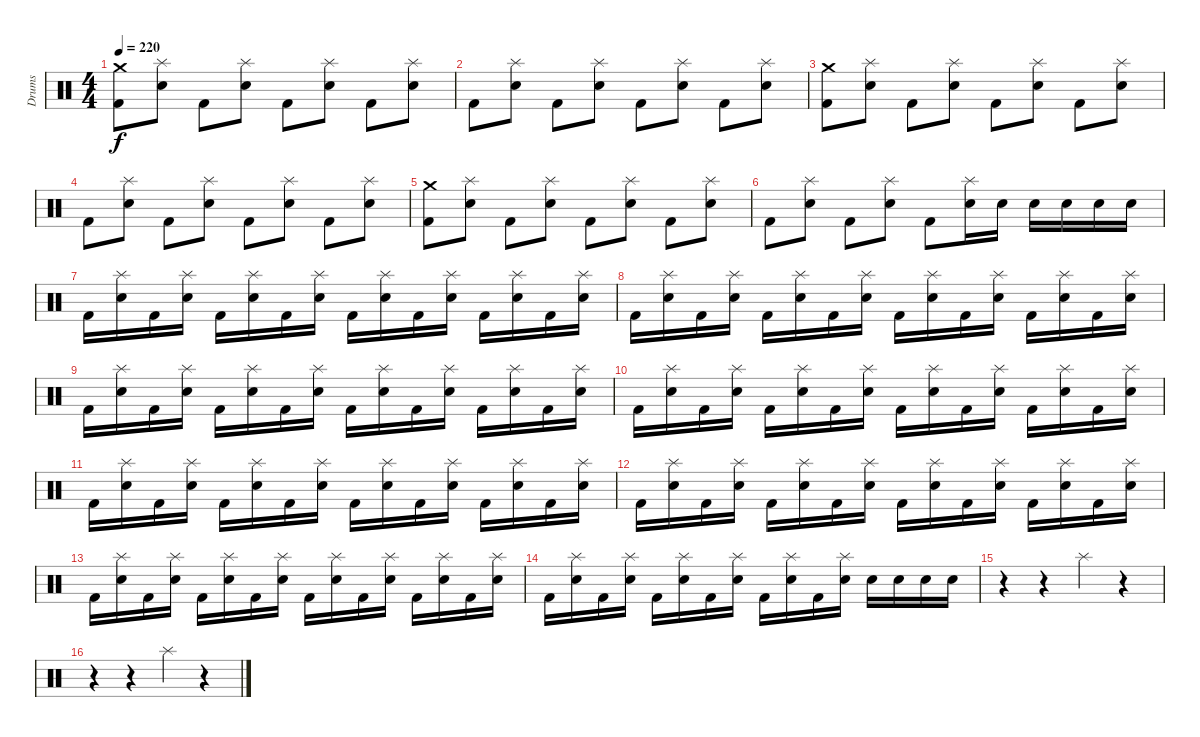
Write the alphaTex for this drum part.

\track ("Drums" "Drums") {instrument percussion}
\staff {score}
\articulation defaults
\ts (4 4)
\tempo 220
\clef neutral
\ks c
("Crash medium (hit)" "Kick (hit) 2").8{dy f} ("Splash (hit)" "Electric Snare (hit)").8 "Kick (hit) 2".8 ("Splash (hit)" "Electric Snare (hit)").8 "Kick (hit) 2".8 ("Splash (hit)" "Electric Snare (hit)").8 "Kick (hit) 2".8 ("Splash (hit)" "Electric Snare (hit)").8 |
"Kick (hit) 2".8 ("Splash (hit)" "Electric Snare (hit)").8 "Kick (hit) 2".8 ("Splash (hit)" "Electric Snare (hit)").8 "Kick (hit) 2".8 ("Splash (hit)" "Electric Snare (hit)").8 "Kick (hit) 2".8 ("Splash (hit)" "Electric Snare (hit)").8 |
("Crash medium (hit)" "Kick (hit) 2").8 ("Splash (hit)" "Electric Snare (hit)").8 "Kick (hit) 2".8 ("Splash (hit)" "Electric Snare (hit)").8 "Kick (hit) 2".8 ("Splash (hit)" "Electric Snare (hit)").8 "Kick (hit) 2".8 ("Splash (hit)" "Electric Snare (hit)").8 |
"Kick (hit) 2".8 ("Splash (hit)" "Electric Snare (hit)").8 "Kick (hit) 2".8 ("Splash (hit)" "Electric Snare (hit)").8 "Kick (hit) 2".8 ("Splash (hit)" "Electric Snare (hit)").8 "Kick (hit) 2".8 ("Splash (hit)" "Electric Snare (hit)").8 |
("Crash medium (hit)" "Kick (hit) 2").8 ("Splash (hit)" "Electric Snare (hit)").8 "Kick (hit) 2".8 ("Splash (hit)" "Electric Snare (hit)").8 "Kick (hit) 2".8 ("Splash (hit)" "Electric Snare (hit)").8 "Kick (hit) 2".8 ("Splash (hit)" "Electric Snare (hit)").8 |
"Kick (hit) 2".8 ("Splash (hit)" "Electric Snare (hit)").8 "Kick (hit) 2".8 ("Splash (hit)" "Electric Snare (hit)").8 "Kick (hit) 2".8 ("Splash (hit)" "Electric Snare (hit)").16 "Electric Snare (hit)".16 "Electric Snare (hit)".16 "Electric Snare (hit)".16 "Electric Snare (hit)".16 "Electric Snare (hit)".16 |
"Kick (hit) 2".16 ("Splash (hit)" "Electric Snare (hit)").16 "Kick (hit) 2".16 ("Splash (hit)" "Electric Snare (hit)").16 "Kick (hit) 2".16 ("Splash (hit)" "Electric Snare (hit)").16 "Kick (hit) 2".16 ("Splash (hit)" "Electric Snare (hit)").16 "Kick (hit) 2".16 ("Splash (hit)" "Electric Snare (hit)").16 "Kick (hit) 2".16 ("Splash (hit)" "Electric Snare (hit)").16 "Kick (hit) 2".16 ("Splash (hit)" "Electric Snare (hit)").16 "Kick (hit) 2".16 ("Splash (hit)" "Electric Snare (hit)").16 |
"Kick (hit) 2".16 ("Splash (hit)" "Electric Snare (hit)").16 "Kick (hit) 2".16 ("Splash (hit)" "Electric Snare (hit)").16 "Kick (hit) 2".16 ("Splash (hit)" "Electric Snare (hit)").16 "Kick (hit) 2".16 ("Splash (hit)" "Electric Snare (hit)").16 "Kick (hit) 2".16 ("Splash (hit)" "Electric Snare (hit)").16 "Kick (hit) 2".16 ("Splash (hit)" "Electric Snare (hit)").16 "Kick (hit) 2".16 ("Splash (hit)" "Electric Snare (hit)").16 "Kick (hit) 2".16 ("Splash (hit)" "Electric Snare (hit)").16 |
"Kick (hit) 2".16 ("Splash (hit)" "Electric Snare (hit)").16 "Kick (hit) 2".16 ("Splash (hit)" "Electric Snare (hit)").16 "Kick (hit) 2".16 ("Splash (hit)" "Electric Snare (hit)").16 "Kick (hit) 2".16 ("Splash (hit)" "Electric Snare (hit)").16 "Kick (hit) 2".16 ("Splash (hit)" "Electric Snare (hit)").16 "Kick (hit) 2".16 ("Splash (hit)" "Electric Snare (hit)").16 "Kick (hit) 2".16 ("Splash (hit)" "Electric Snare (hit)").16 "Kick (hit) 2".16 ("Splash (hit)" "Electric Snare (hit)").16 |
"Kick (hit) 2".16 ("Splash (hit)" "Electric Snare (hit)").16 "Kick (hit) 2".16 ("Splash (hit)" "Electric Snare (hit)").16 "Kick (hit) 2".16 ("Splash (hit)" "Electric Snare (hit)").16 "Kick (hit) 2".16 ("Splash (hit)" "Electric Snare (hit)").16 "Kick (hit) 2".16 ("Splash (hit)" "Electric Snare (hit)").16 "Kick (hit) 2".16 ("Splash (hit)" "Electric Snare (hit)").16 "Kick (hit) 2".16 ("Splash (hit)" "Electric Snare (hit)").16 "Kick (hit) 2".16 ("Splash (hit)" "Electric Snare (hit)").16 |
"Kick (hit) 2".16 ("Splash (hit)" "Electric Snare (hit)").16 "Kick (hit) 2".16 ("Splash (hit)" "Electric Snare (hit)").16 "Kick (hit) 2".16 ("Splash (hit)" "Electric Snare (hit)").16 "Kick (hit) 2".16 ("Splash (hit)" "Electric Snare (hit)").16 "Kick (hit) 2".16 ("Splash (hit)" "Electric Snare (hit)").16 "Kick (hit) 2".16 ("Splash (hit)" "Electric Snare (hit)").16 "Kick (hit) 2".16 ("Splash (hit)" "Electric Snare (hit)").16 "Kick (hit) 2".16 ("Splash (hit)" "Electric Snare (hit)").16 |
"Kick (hit) 2".16 ("Splash (hit)" "Electric Snare (hit)").16 "Kick (hit) 2".16 ("Splash (hit)" "Electric Snare (hit)").16 "Kick (hit) 2".16 ("Splash (hit)" "Electric Snare (hit)").16 "Kick (hit) 2".16 ("Splash (hit)" "Electric Snare (hit)").16 "Kick (hit) 2".16 ("Splash (hit)" "Electric Snare (hit)").16 "Kick (hit) 2".16 ("Splash (hit)" "Electric Snare (hit)").16 "Kick (hit) 2".16 ("Splash (hit)" "Electric Snare (hit)").16 "Kick (hit) 2".16 ("Splash (hit)" "Electric Snare (hit)").16 |
"Kick (hit) 2".16 ("Splash (hit)" "Electric Snare (hit)").16 "Kick (hit) 2".16 ("Splash (hit)" "Electric Snare (hit)").16 "Kick (hit) 2".16 ("Splash (hit)" "Electric Snare (hit)").16 "Kick (hit) 2".16 ("Splash (hit)" "Electric Snare (hit)").16 "Kick (hit) 2".16 ("Splash (hit)" "Electric Snare (hit)").16 "Kick (hit) 2".16 ("Splash (hit)" "Electric Snare (hit)").16 "Kick (hit) 2".16 ("Splash (hit)" "Electric Snare (hit)").16 "Kick (hit) 2".16 ("Splash (hit)" "Electric Snare (hit)").16 |
"Kick (hit) 2".16 ("Splash (hit)" "Electric Snare (hit)").16 "Kick (hit) 2".16 ("Splash (hit)" "Electric Snare (hit)").16 "Kick (hit) 2".16 ("Splash (hit)" "Electric Snare (hit)").16 "Kick (hit) 2".16 ("Splash (hit)" "Electric Snare (hit)").16 "Kick (hit) 2".16 ("Splash (hit)" "Electric Snare (hit)").16 "Kick (hit) 2".16 ("Splash (hit)" "Electric Snare (hit)").16 "Electric Snare (hit)".16 "Electric Snare (hit)".16 "Electric Snare (hit)".16 "Electric Snare (hit)".16 |
r.4 r.4 "Splash (hit)".4 r.4 |
r.4 r.4 "Splash (hit)".4 r.4
